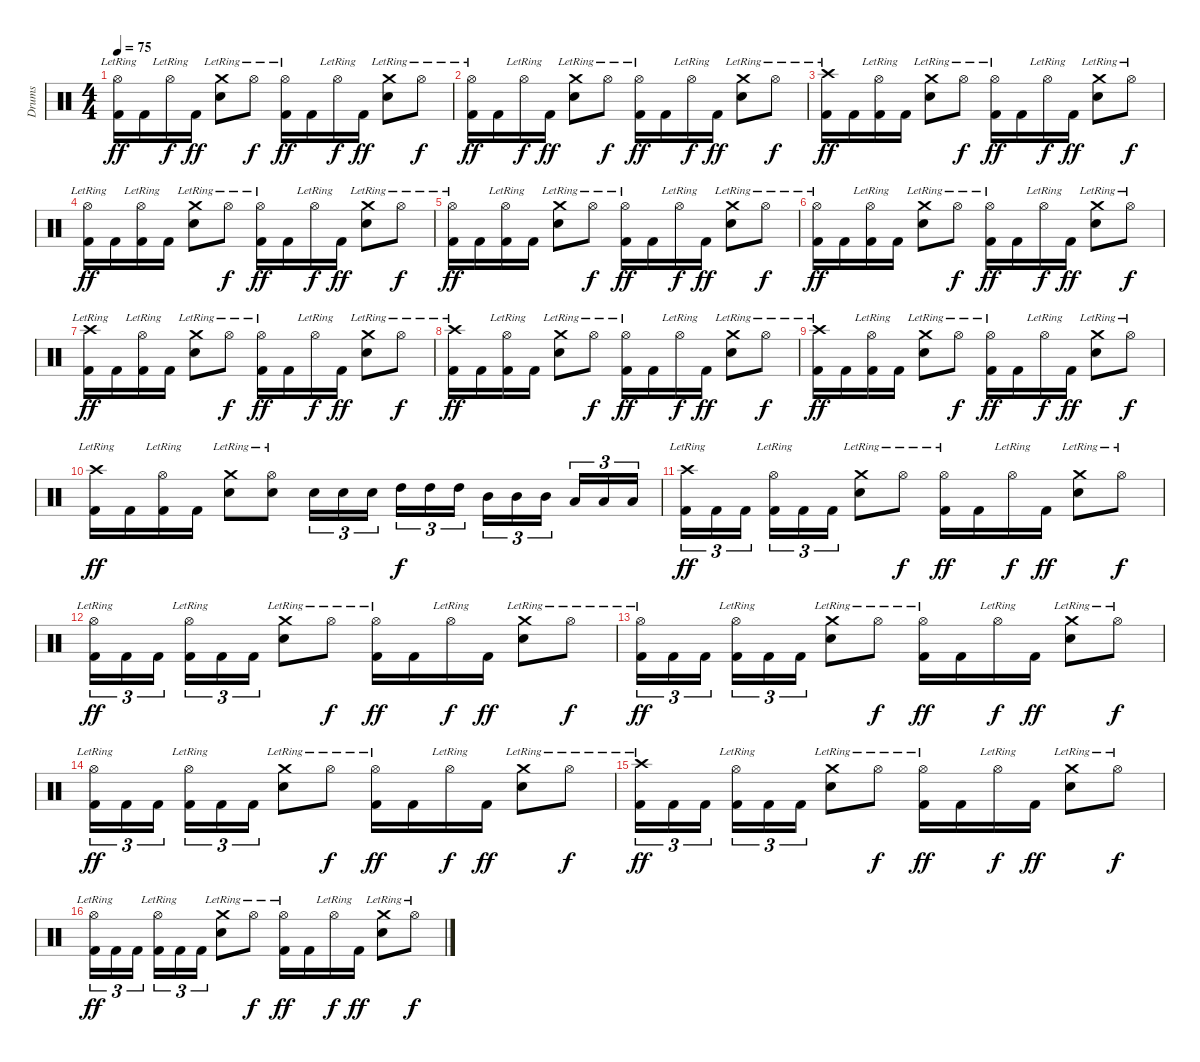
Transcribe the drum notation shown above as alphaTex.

\track ("Drums" "Drums") {instrument percussion}
\staff {score}
\articulation defaults
\ts (4 4)
\tempo 75
\clef neutral
\ks c
("Hi-Hat (open)"{lr} "Kick (hit) 2").16{dy ff} "Kick (hit) 2".16 "Hi-Hat (open)"{lr}.16{dy f} "Kick (hit) 2".16{dy ff} ("Crash medium (hit)"{lr} "Snare (hit) 2").8 "Hi-Hat (open)"{lr}.8{dy f} ("Hi-Hat (open)"{lr} "Kick (hit) 2").16{dy ff} "Kick (hit) 2".16 "Hi-Hat (open)"{lr}.16{dy f} "Kick (hit) 2".16{dy ff} ("Crash medium (hit)"{lr} "Snare (hit) 2").8 "Hi-Hat (open)"{lr}.8{dy f} |
("Hi-Hat (open)"{lr} "Kick (hit) 2").16{dy ff} "Kick (hit) 2".16 "Hi-Hat (open)"{lr}.16{dy f} "Kick (hit) 2".16{dy ff} ("Crash medium (hit)"{lr} "Snare (hit) 2").8 "Hi-Hat (open)"{lr}.8{dy f} ("Hi-Hat (open)"{lr} "Kick (hit) 2").16{dy ff} "Kick (hit) 2".16 "Hi-Hat (open)"{lr}.16{dy f} "Kick (hit) 2".16{dy ff} ("Crash medium (hit)"{lr} "Snare (hit) 2").8 "Hi-Hat (open)"{lr}.8{dy f} |
("Crash high (hit)"{lr} "Kick (hit) 2").16{dy ff} "Kick (hit) 2".16 ("Hi-Hat (open)"{lr} "Kick (hit) 2").16 "Kick (hit) 2".16 ("Crash medium (hit)"{lr} "Snare (hit) 2").8 "Hi-Hat (open)"{lr}.8{dy f} ("Hi-Hat (open)"{lr} "Kick (hit) 2").16{dy ff} "Kick (hit) 2".16 "Hi-Hat (open)"{lr}.16{dy f} "Kick (hit) 2".16{dy ff} ("Crash medium (hit)"{lr} "Snare (hit) 2").8 "Hi-Hat (open)"{lr}.8{dy f} |
("Hi-Hat (open)"{lr} "Kick (hit) 2").16{dy ff} "Kick (hit) 2".16 ("Hi-Hat (open)"{lr} "Kick (hit) 2").16 "Kick (hit) 2".16 ("Crash medium (hit)"{lr} "Snare (hit) 2").8 "Hi-Hat (open)"{lr}.8{dy f} ("Hi-Hat (open)"{lr} "Kick (hit) 2").16{dy ff} "Kick (hit) 2".16 "Hi-Hat (open)"{lr}.16{dy f} "Kick (hit) 2".16{dy ff} ("Crash medium (hit)"{lr} "Snare (hit) 2").8 "Hi-Hat (open)"{lr}.8{dy f} |
("Hi-Hat (open)"{lr} "Kick (hit) 2").16{dy ff} "Kick (hit) 2".16 ("Hi-Hat (open)"{lr} "Kick (hit) 2").16 "Kick (hit) 2".16 ("Crash medium (hit)"{lr} "Snare (hit) 2").8 "Hi-Hat (open)"{lr}.8{dy f} ("Hi-Hat (open)"{lr} "Kick (hit) 2").16{dy ff} "Kick (hit) 2".16 "Hi-Hat (open)"{lr}.16{dy f} "Kick (hit) 2".16{dy ff} ("Crash medium (hit)"{lr} "Snare (hit) 2").8 "Hi-Hat (open)"{lr}.8{dy f} |
("Hi-Hat (open)"{lr} "Kick (hit) 2").16{dy ff} "Kick (hit) 2".16 ("Hi-Hat (open)"{lr} "Kick (hit) 2").16 "Kick (hit) 2".16 ("Crash medium (hit)"{lr} "Snare (hit) 2").8 "Hi-Hat (open)"{lr}.8{dy f} ("Hi-Hat (open)"{lr} "Kick (hit) 2").16{dy ff} "Kick (hit) 2".16 "Hi-Hat (open)"{lr}.16{dy f} "Kick (hit) 2".16{dy ff} ("Crash medium (hit)"{lr} "Snare (hit) 2").8 "Hi-Hat (open)"{lr}.8{dy f} |
("Crash high (hit)"{lr} "Kick (hit) 2").16{dy ff} "Kick (hit) 2".16 ("Hi-Hat (open)"{lr} "Kick (hit) 2").16 "Kick (hit) 2".16 ("Crash medium (hit)"{lr} "Snare (hit) 2").8 "Hi-Hat (open)"{lr}.8{dy f} ("Hi-Hat (open)"{lr} "Kick (hit) 2").16{dy ff} "Kick (hit) 2".16 "Hi-Hat (open)"{lr}.16{dy f} "Kick (hit) 2".16{dy ff} ("Crash medium (hit)"{lr} "Snare (hit) 2").8 "Hi-Hat (open)"{lr}.8{dy f} |
("Crash high (hit)"{lr} "Kick (hit) 2").16{dy ff} "Kick (hit) 2".16 ("Hi-Hat (open)"{lr} "Kick (hit) 2").16 "Kick (hit) 2".16 ("Crash medium (hit)"{lr} "Snare (hit) 2").8 "Hi-Hat (open)"{lr}.8{dy f} ("Hi-Hat (open)"{lr} "Kick (hit) 2").16{dy ff} "Kick (hit) 2".16 "Hi-Hat (open)"{lr}.16{dy f} "Kick (hit) 2".16{dy ff} ("Crash medium (hit)"{lr} "Snare (hit) 2").8 "Hi-Hat (open)"{lr}.8{dy f} |
("Crash high (hit)"{lr} "Kick (hit) 2").16{dy ff} "Kick (hit) 2".16 ("Hi-Hat (open)"{lr} "Kick (hit) 2").16 "Kick (hit) 2".16 ("Crash medium (hit)"{lr} "Snare (hit) 2").8 "Hi-Hat (open)"{lr}.8{dy f} ("Hi-Hat (open)"{lr} "Kick (hit) 2").16{dy ff} "Kick (hit) 2".16 "Hi-Hat (open)"{lr}.16{dy f} "Kick (hit) 2".16{dy ff} ("Crash medium (hit)"{lr} "Snare (hit) 2").8 "Hi-Hat (open)"{lr}.8{dy f} |
("Crash high (hit)"{lr} "Kick (hit) 2").16{dy ff} "Kick (hit) 2".16 ("Hi-Hat (open)"{lr} "Kick (hit) 2").16 "Kick (hit) 2".16 ("Crash medium (hit)"{lr} "Snare (hit) 2").8 ("Hi-Hat (open)"{lr} "Snare (hit) 2").8 "Snare (hit) 2".16{tu (3 2)} "Snare (hit) 2".16{tu (3 2)} "Snare (hit) 2".16{tu (3 2)} "High Tom (hit)".16{tu (3 2) dy f} "High Tom (hit)".16{tu (3 2)} "High Tom (hit)".16{tu (3 2)} "Mid Tom (hit)".16{tu (3 2)} "Mid Tom (hit)".16{tu (3 2)} "Mid Tom (hit)".16{tu (3 2)} "Low Tom (hit)".16{tu (3 2)} "Low Tom (hit)".16{tu (3 2)} "Low Tom (hit)".16{tu (3 2)} |
("Crash high (hit)"{lr} "Kick (hit) 2").16{tu (3 2) dy ff} "Kick (hit) 2".16{tu (3 2)} "Kick (hit) 2".16{tu (3 2)} ("Hi-Hat (open)"{lr} "Kick (hit) 2").16{tu (3 2)} "Kick (hit) 2".16{tu (3 2)} "Kick (hit) 2".16{tu (3 2)} ("Crash medium (hit)"{lr} "Snare (hit) 2").8 "Hi-Hat (open)"{lr}.8{dy f} ("Hi-Hat (open)"{lr} "Kick (hit) 2").16{dy ff} "Kick (hit) 2".16 "Hi-Hat (open)"{lr}.16{dy f} "Kick (hit) 2".16{dy ff} ("Crash medium (hit)"{lr} "Snare (hit) 2").8 "Hi-Hat (open)"{lr}.8{dy f} |
("Hi-Hat (open)"{lr} "Kick (hit) 2").16{tu (3 2) dy ff} "Kick (hit) 2".16{tu (3 2)} "Kick (hit) 2".16{tu (3 2)} ("Hi-Hat (open)"{lr} "Kick (hit) 2").16{tu (3 2)} "Kick (hit) 2".16{tu (3 2)} "Kick (hit) 2".16{tu (3 2)} ("Crash medium (hit)"{lr} "Snare (hit) 2").8 "Hi-Hat (open)"{lr}.8{dy f} ("Hi-Hat (open)"{lr} "Kick (hit) 2").16{dy ff} "Kick (hit) 2".16 "Hi-Hat (open)"{lr}.16{dy f} "Kick (hit) 2".16{dy ff} ("Crash medium (hit)"{lr} "Snare (hit) 2").8 "Hi-Hat (open)"{lr}.8{dy f} |
("Hi-Hat (open)"{lr} "Kick (hit) 2").16{tu (3 2) dy ff} "Kick (hit) 2".16{tu (3 2)} "Kick (hit) 2".16{tu (3 2)} ("Hi-Hat (open)"{lr} "Kick (hit) 2").16{tu (3 2)} "Kick (hit) 2".16{tu (3 2)} "Kick (hit) 2".16{tu (3 2)} ("Crash medium (hit)"{lr} "Snare (hit) 2").8 "Hi-Hat (open)"{lr}.8{dy f} ("Hi-Hat (open)"{lr} "Kick (hit) 2").16{dy ff} "Kick (hit) 2".16 "Hi-Hat (open)"{lr}.16{dy f} "Kick (hit) 2".16{dy ff} ("Crash medium (hit)"{lr} "Snare (hit) 2").8 "Hi-Hat (open)"{lr}.8{dy f} |
("Hi-Hat (open)"{lr} "Kick (hit) 2").16{tu (3 2) dy ff} "Kick (hit) 2".16{tu (3 2)} "Kick (hit) 2".16{tu (3 2)} ("Hi-Hat (open)"{lr} "Kick (hit) 2").16{tu (3 2)} "Kick (hit) 2".16{tu (3 2)} "Kick (hit) 2".16{tu (3 2)} ("Crash medium (hit)"{lr} "Snare (hit) 2").8 "Hi-Hat (open)"{lr}.8{dy f} ("Hi-Hat (open)"{lr} "Kick (hit) 2").16{dy ff} "Kick (hit) 2".16 "Hi-Hat (open)"{lr}.16{dy f} "Kick (hit) 2".16{dy ff} ("Crash medium (hit)"{lr} "Snare (hit) 2").8 "Hi-Hat (open)"{lr}.8{dy f} |
("Crash high (hit)"{lr} "Kick (hit) 2").16{tu (3 2) dy ff} "Kick (hit) 2".16{tu (3 2)} "Kick (hit) 2".16{tu (3 2)} ("Hi-Hat (open)"{lr} "Kick (hit) 2").16{tu (3 2)} "Kick (hit) 2".16{tu (3 2)} "Kick (hit) 2".16{tu (3 2)} ("Crash medium (hit)"{lr} "Snare (hit) 2").8 "Hi-Hat (open)"{lr}.8{dy f} ("Hi-Hat (open)"{lr} "Kick (hit) 2").16{dy ff} "Kick (hit) 2".16 "Hi-Hat (open)"{lr}.16{dy f} "Kick (hit) 2".16{dy ff} ("Crash medium (hit)"{lr} "Snare (hit) 2").8 "Hi-Hat (open)"{lr}.8{dy f} |
("Hi-Hat (open)"{lr} "Kick (hit) 2").16{tu (3 2) dy ff} "Kick (hit) 2".16{tu (3 2)} "Kick (hit) 2".16{tu (3 2)} ("Hi-Hat (open)"{lr} "Kick (hit) 2").16{tu (3 2)} "Kick (hit) 2".16{tu (3 2)} "Kick (hit) 2".16{tu (3 2)} ("Crash medium (hit)"{lr} "Snare (hit) 2").8 "Hi-Hat (open)"{lr}.8{dy f} ("Hi-Hat (open)"{lr} "Kick (hit) 2").16{dy ff} "Kick (hit) 2".16 "Hi-Hat (open)"{lr}.16{dy f} "Kick (hit) 2".16{dy ff} ("Crash medium (hit)"{lr} "Snare (hit) 2").8 "Hi-Hat (open)"{lr}.8{dy f}
